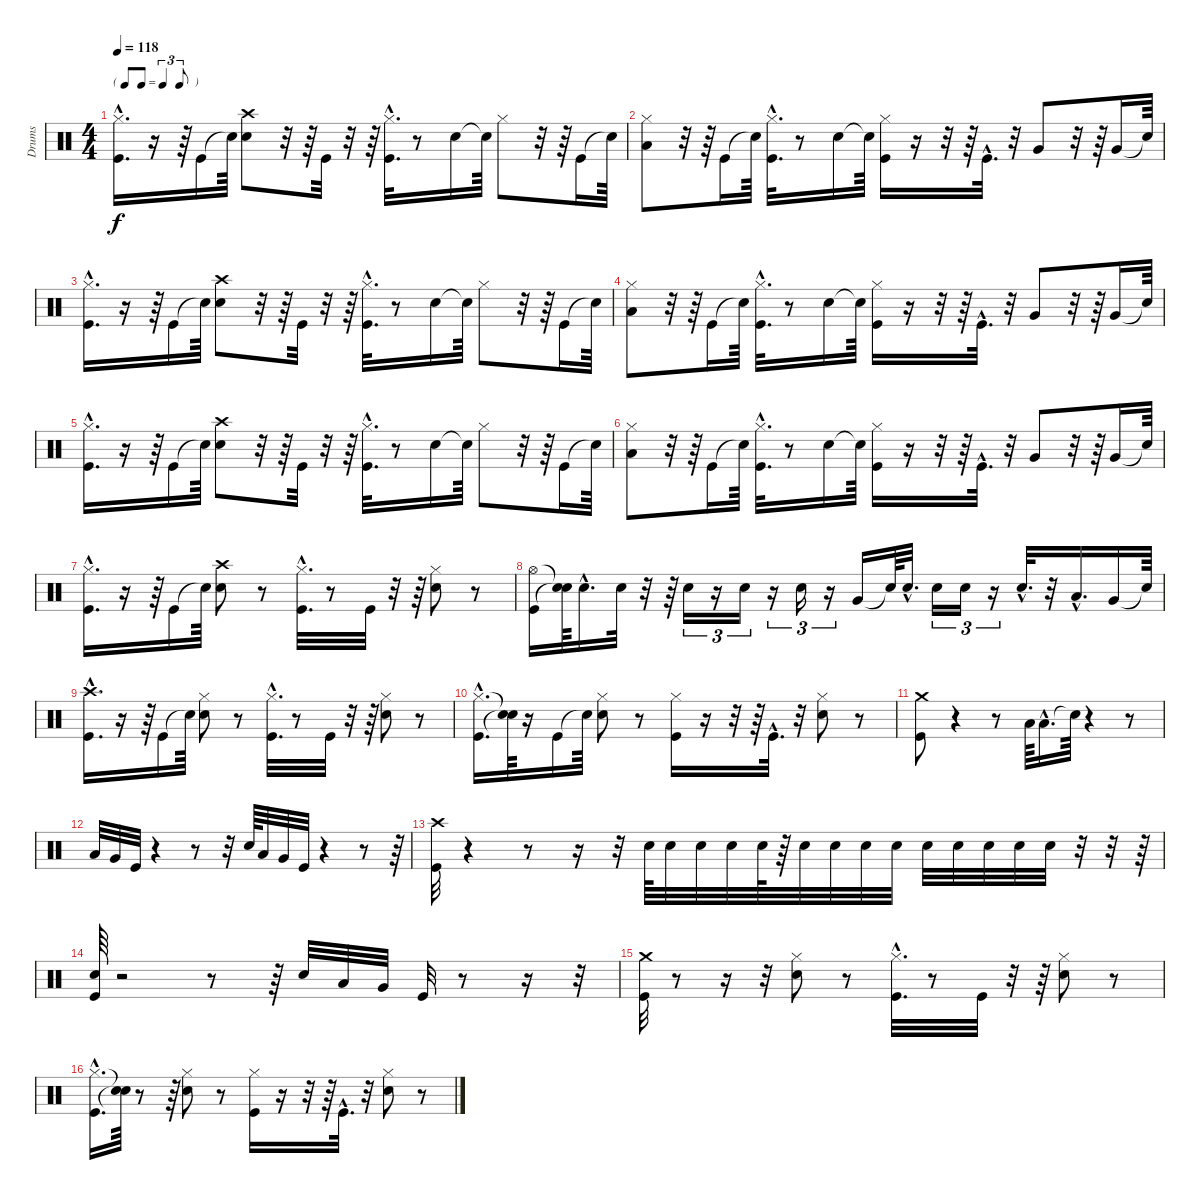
\track ("Drums" "Drums") {instrument percussion}
\staff {score}
\articulation defaults
\ts (4 4)
\tf triplet8th
\tempo 118
\clef neutral
\ks c
("Kick (hit)"{hac} "Hi-Hat (closed)"{hac}).16{d dy f} r.16 r.64 "Kick (hit)".16 "Snare (hit)"{t}.64 ("Snare (hit) 2" "Crash high (hit)").8 r.32 r.64 "Kick (hit)".32 r.32 r.64 ("Kick (hit)"{hac} "Hi-Hat (closed)"{hac}).32{d} r.8 "Snare (hit) 2".16 "Snare (hit)"{t}.64 "Hi-Hat (closed)".8 r.32 r.64 "Kick (hit)".16 "Snare (hit)"{t}.64 |
("Hi-Hat (closed)" "Low Tom (hit)").8 r.32 r.64 "Kick (hit)".16 "Snare (hit)"{t}.64 ("Hi-Hat (closed)"{hac} "Kick (hit)"{hac}).32{d} r.8 "Snare (hit) 2".16 "Snare (hit)"{t}.64 ("Hi-Hat (closed)" "Kick (hit)").16 r.16 r.32 r.64 "Kick (hit)"{hac}.32{d} r.32 "Very Low Tom (hit)".8 r.32 r.64 "Very Low Tom (hit)".16 "Snare (hit)"{t}.64 |
("Hi-Hat (closed)"{hac} "Kick (hit)"{hac}).16{d} r.16 r.64 "Kick (hit)".16 "Snare (hit)"{t}.64 ("Crash high (hit)" "Snare (hit) 2").8 r.32 r.64 "Kick (hit)".32 r.32 r.64 ("Hi-Hat (closed)"{hac} "Kick (hit)"{hac}).32{d} r.8 "Snare (hit) 2".16 "Snare (hit)"{t}.64 "Hi-Hat (closed)".8 r.32 r.64 "Kick (hit)".16 "Snare (hit)"{t}.64 |
("Low Tom (hit)" "Hi-Hat (closed)").8 r.32 r.64 "Kick (hit)".16 "Snare (hit)"{t}.64 ("Hi-Hat (closed)"{hac} "Kick (hit)"{hac}).32{d} r.8 "Snare (hit) 2".16 "Snare (hit)"{t}.64 ("Kick (hit)" "Hi-Hat (closed)").16 r.16 r.32 r.64 "Kick (hit)"{hac}.32{d} r.32 "Very Low Tom (hit)".8 r.32 r.64 "Very Low Tom (hit)".16 "Snare (hit)"{t}.64 |
("Kick (hit)"{hac} "Hi-Hat (closed)"{hac}).16{d} r.16 r.64 "Kick (hit)".16 "Snare (hit)"{t}.64 ("Crash high (hit)" "Snare (hit) 2").8 r.32 r.64 "Kick (hit)".32 r.32 r.64 ("Hi-Hat (closed)"{hac} "Kick (hit)"{hac}).32{d} r.8 "Snare (hit) 2".16 "Snare (hit)"{t}.64 "Hi-Hat (closed)".8 r.32 r.64 "Kick (hit)".16 "Snare (hit)"{t}.64 |
("Low Tom (hit)" "Hi-Hat (closed)").8 r.32 r.64 "Kick (hit)".16 "Snare (hit)"{t}.64 ("Kick (hit)"{hac} "Hi-Hat (closed)"{hac}).32{d} r.8 "Snare (hit) 2".16 "Snare (hit)"{t}.64 ("Hi-Hat (closed)" "Kick (hit)").16 r.16 r.32 r.64 "Kick (hit)"{hac}.32{d} r.32 "Very Low Tom (hit)".8 r.32 r.64 "Very Low Tom (hit)".16 "Snare (hit)"{t}.64 |
("Kick (hit)"{hac} "Hi-Hat (closed)"{hac}).16{d} r.16 r.64 "Kick (hit)".16 "Snare (hit)"{t}.64 ("Crash high (hit)" "Snare (hit) 2").8 r.8 ("Kick (hit)"{hac} "Hi-Hat (closed)"{hac}).32{d} r.8 "Kick (hit)".32 r.32 r.64 ("Hi-Hat (closed)" "Snare (hit) 2").8 r.8 |
("Hi-Hat (open)" "Kick (hit)").16 ("Snare (hit)"{t} "Snare (hit)"{t}).64 "Snare (hit) 2"{hac}.16{d} "Snare (hit) 2".32 r.32 r.64 "Snare (hit) 2".16{tu (3 2)} r.16{tu (3 2)} "Snare (hit) 2".16{tu (3 2)} r.16{tu (3 2)} "Snare (hit) 2".16{tu (3 2)} r.16{tu (3 2)} "Very Low Tom (hit)".16 "Snare (hit)"{t}.64 "Snare (hit) 2"{hac}.32{d} "Snare (hit) 2".16{tu (3 2)} "Snare (hit) 2".16{tu (3 2)} r.16{tu (3 2)} "Snare (hit) 2"{hac}.32{d} r.32 "Low Tom (hit)"{hac}.16{d} "Very Low Tom (hit)".16 "Snare (hit)"{t}.64 |
("Kick (hit)"{hac} "Crash high (hit)"{hac}).16{d} r.16 r.64 "Kick (hit)".16 "Snare (hit)"{t}.64 ("Hi-Hat (closed)" "Snare (hit) 2").8 r.8 ("Hi-Hat (closed)"{hac} "Kick (hit)"{hac}).32{d} r.8 "Kick (hit)".32 r.32 r.64 ("Hi-Hat (closed)" "Snare (hit) 2").8 r.8 |
("Hi-Hat (closed)"{hac} "Kick (hit)"{hac}).16{d} ("Snare (hit)"{t} "Snare (hit)"{t}).64 r.16 "Kick (hit)".16 "Snare (hit)"{t}.64 ("Hi-Hat (closed)" "Snare (hit) 2").8 r.8 ("Kick (hit)" "Hi-Hat (closed)").16 r.16 r.32 r.64 "Kick (hit)"{hac}.32{d} r.32 ("Hi-Hat (closed)" "Snare (hit) 2").8 r.8 |
("Kick (hit)" "Crash medium (hit)").8 r.4 r.8 "Low Tom (hit)".64 "Low Tom (hit)"{hac}.16{d} "Snare (hit)"{t}.64 r.4 r.8 |
"Low Tom (hit)".32 "Very Low Tom (hit)".32 "Kick (hit)".32 r.4 r.8 r.32 "Snare (hit) 2".64 "Low Tom (hit)".32 "Very Low Tom (hit)".32 "Kick (hit)".32 r.4 r.8 r.64 |
("Crash high (hit)" "Kick (hit)").32 r.4 r.8 r.16 r.32 "Snare (hit) 2".64 "Snare (hit) 2".32 "Snare (hit) 2".32 "Snare (hit) 2".32 "Snare (hit) 2".64 r.64 "Snare (hit) 2".32 "Snare (hit) 2".32 "Snare (hit) 2".32 "Snare (hit) 2".32 "Snare (hit) 2".32 "Snare (hit) 2".32 "Snare (hit) 2".32 "Snare (hit) 2".32 "Snare (hit) 2".32 r.32 r.32 r.64 |
("Kick (hit)" "Snare (hit) 2").64 r.2 r.8 r.64 "Snare (hit) 2".32 "Low Tom (hit)".32 "Very Low Tom (hit)".32 "Kick (hit)".32 r.8 r.16 r.32 |
("Crash medium (hit)" "Kick (hit)").32 r.8 r.16 r.32 ("Snare (hit) 2" "Hi-Hat (closed)").8 r.8 ("Kick (hit)"{hac} "Hi-Hat (closed)"{hac}).32{d} r.8 "Kick (hit)".32 r.32 r.64 ("Hi-Hat (closed)" "Snare (hit) 2").8 r.8 |
("Hi-Hat (closed)"{hac} "Kick (hit)"{hac}).16{d} ("Snare (hit)"{t} "Snare (hit)"{t}).64 r.8 r.64 ("Snare (hit) 2" "Hi-Hat (closed)").8 r.8 ("Kick (hit)" "Hi-Hat (closed)").16 r.16 r.32 r.64 "Kick (hit)"{hac}.32{d} r.32 ("Snare (hit) 2" "Hi-Hat (closed)").8 r.8
